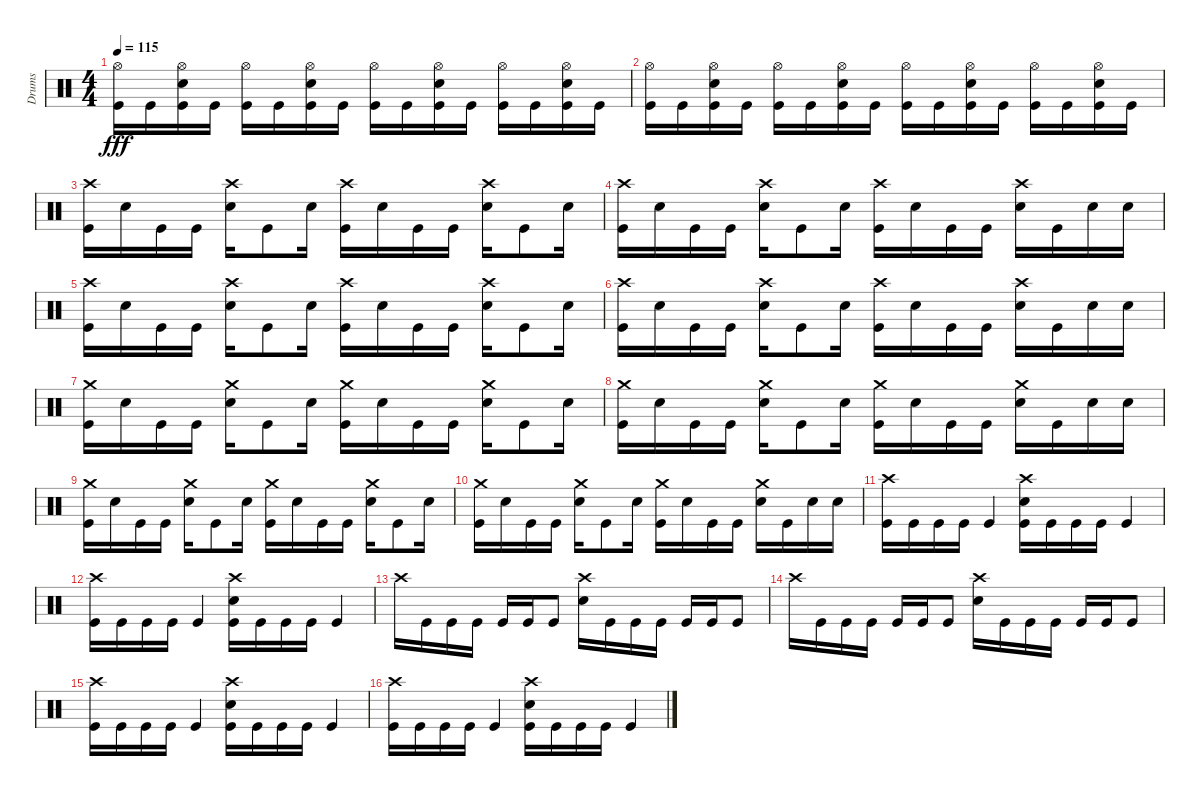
\track ("Drums" "Drums") {instrument percussion}
\staff {score}
\articulation defaults
\ts (4 4)
\tempo 115
\clef neutral
\ks c
("Hi-Hat (open)" "Kick (hit)").16{dy fff} "Kick (hit)".16 ("Hi-Hat (open)" "Electric Snare (hit)" "Kick (hit)").16 "Kick (hit)".16 ("Hi-Hat (open)" "Kick (hit)").16 "Kick (hit)".16 ("Hi-Hat (open)" "Electric Snare (hit)" "Kick (hit)").16 "Kick (hit)".16 ("Hi-Hat (open)" "Kick (hit)").16 "Kick (hit)".16 ("Hi-Hat (open)" "Electric Snare (hit)" "Kick (hit)").16 "Kick (hit)".16 ("Hi-Hat (open)" "Kick (hit)").16 "Kick (hit)".16 ("Hi-Hat (open)" "Electric Snare (hit)" "Kick (hit)").16 "Kick (hit)".16 |
("Hi-Hat (open)" "Kick (hit)").16 "Kick (hit)".16 ("Hi-Hat (open)" "Electric Snare (hit)" "Kick (hit)").16 "Kick (hit)".16 ("Hi-Hat (open)" "Kick (hit)").16 "Kick (hit)".16 ("Hi-Hat (open)" "Electric Snare (hit)" "Kick (hit)").16 "Kick (hit)".16 ("Hi-Hat (open)" "Kick (hit)").16 "Kick (hit)".16 ("Hi-Hat (open)" "Electric Snare (hit)" "Kick (hit)").16 "Kick (hit)".16 ("Hi-Hat (open)" "Kick (hit)").16 "Kick (hit)".16 ("Hi-Hat (open)" "Electric Snare (hit)" "Kick (hit)").16 "Kick (hit)".16 |
("Crash high (hit)" "Kick (hit)").16 "Electric Snare (hit)".16 "Kick (hit)".16 "Kick (hit)".16 ("Crash high (hit)" "Electric Snare (hit)").16 "Kick (hit)".8 "Electric Snare (hit)".16 ("Crash high (hit)" "Kick (hit)").16 "Electric Snare (hit)".16 "Kick (hit)".16 "Kick (hit)".16 ("Crash high (hit)" "Electric Snare (hit)").16 "Kick (hit)".8 "Electric Snare (hit)".16 |
("Crash high (hit)" "Kick (hit)").16 "Electric Snare (hit)".16 "Kick (hit)".16 "Kick (hit)".16 ("Crash high (hit)" "Electric Snare (hit)").16 "Kick (hit)".8 "Electric Snare (hit)".16 ("Crash high (hit)" "Kick (hit)").16 "Electric Snare (hit)".16 "Kick (hit)".16 "Kick (hit)".16 ("Crash high (hit)" "Electric Snare (hit)").16 "Kick (hit)".16 "Electric Snare (hit)".16 "Electric Snare (hit)".16 |
("Crash high (hit)" "Kick (hit)").16 "Electric Snare (hit)".16 "Kick (hit)".16 "Kick (hit)".16 ("Crash high (hit)" "Electric Snare (hit)").16 "Kick (hit)".8 "Electric Snare (hit)".16 ("Crash high (hit)" "Kick (hit)").16 "Electric Snare (hit)".16 "Kick (hit)".16 "Kick (hit)".16 ("Crash high (hit)" "Electric Snare (hit)").16 "Kick (hit)".8 "Electric Snare (hit)".16 |
("Crash high (hit)" "Kick (hit)").16 "Electric Snare (hit)".16 "Kick (hit)".16 "Kick (hit)".16 ("Crash high (hit)" "Electric Snare (hit)").16 "Kick (hit)".8 "Electric Snare (hit)".16 ("Crash high (hit)" "Kick (hit)").16 "Electric Snare (hit)".16 "Kick (hit)".16 "Kick (hit)".16 ("Crash high (hit)" "Electric Snare (hit)").16 "Kick (hit)".16 "Electric Snare (hit)".16 "Electric Snare (hit)".16 |
("Crash medium (hit)" "Kick (hit)").16 "Electric Snare (hit)".16 "Kick (hit)".16 "Kick (hit)".16 ("Crash medium (hit)" "Electric Snare (hit)").16 "Kick (hit)".8 "Electric Snare (hit)".16 ("Crash medium (hit)" "Kick (hit)").16 "Electric Snare (hit)".16 "Kick (hit)".16 "Kick (hit)".16 ("Crash medium (hit)" "Electric Snare (hit)").16 "Kick (hit)".8 "Electric Snare (hit)".16 |
("Crash medium (hit)" "Kick (hit)").16 "Electric Snare (hit)".16 "Kick (hit)".16 "Kick (hit)".16 ("Crash medium (hit)" "Electric Snare (hit)").16 "Kick (hit)".8 "Electric Snare (hit)".16 ("Crash medium (hit)" "Kick (hit)").16 "Electric Snare (hit)".16 "Kick (hit)".16 "Kick (hit)".16 ("Crash medium (hit)" "Electric Snare (hit)").16 "Kick (hit)".16 "Electric Snare (hit)".16 "Electric Snare (hit)".16 |
("Crash medium (hit)" "Kick (hit)").16 "Electric Snare (hit)".16 "Kick (hit)".16 "Kick (hit)".16 ("Crash medium (hit)" "Electric Snare (hit)").16 "Kick (hit)".8 "Electric Snare (hit)".16 ("Crash medium (hit)" "Kick (hit)").16 "Electric Snare (hit)".16 "Kick (hit)".16 "Kick (hit)".16 ("Crash medium (hit)" "Electric Snare (hit)").16 "Kick (hit)".8 "Electric Snare (hit)".16 |
("Crash medium (hit)" "Kick (hit)").16 "Electric Snare (hit)".16 "Kick (hit)".16 "Kick (hit)".16 ("Crash medium (hit)" "Electric Snare (hit)").16 "Kick (hit)".8 "Electric Snare (hit)".16 ("Crash medium (hit)" "Kick (hit)").16 "Electric Snare (hit)".16 "Kick (hit)".16 "Kick (hit)".16 ("Crash medium (hit)" "Electric Snare (hit)").16 "Kick (hit)".16 "Electric Snare (hit)".16 "Electric Snare (hit)".16 |
("Crash high (hit)" "Kick (hit)").16 "Kick (hit)".16 "Kick (hit)".16 "Kick (hit)".16 "Kick (hit)".4 ("Crash high (hit)" "Electric Snare (hit)" "Kick (hit)").16 "Kick (hit)".16 "Kick (hit)".16 "Kick (hit)".16 "Kick (hit)".4 |
("Crash high (hit)" "Kick (hit)").16 "Kick (hit)".16 "Kick (hit)".16 "Kick (hit)".16 "Kick (hit)".4 ("Crash high (hit)" "Electric Snare (hit)" "Kick (hit)").16 "Kick (hit)".16 "Kick (hit)".16 "Kick (hit)".16 "Kick (hit)".4 |
"Crash high (hit)".16 "Kick (hit)".16 "Kick (hit)".16 "Kick (hit)".16 "Kick (hit)".16 "Kick (hit)".16 "Kick (hit)".8 ("Crash high (hit)" "Electric Snare (hit)").16 "Kick (hit)".16 "Kick (hit)".16 "Kick (hit)".16 "Kick (hit)".16 "Kick (hit)".16 "Kick (hit)".8 |
"Crash high (hit)".16 "Kick (hit)".16 "Kick (hit)".16 "Kick (hit)".16 "Kick (hit)".16 "Kick (hit)".16 "Kick (hit)".8 ("Crash high (hit)" "Electric Snare (hit)").16 "Kick (hit)".16 "Kick (hit)".16 "Kick (hit)".16 "Kick (hit)".16 "Kick (hit)".16 "Kick (hit)".8 |
("Crash high (hit)" "Kick (hit)").16 "Kick (hit)".16 "Kick (hit)".16 "Kick (hit)".16 "Kick (hit)".4 ("Crash high (hit)" "Electric Snare (hit)" "Kick (hit)").16 "Kick (hit)".16 "Kick (hit)".16 "Kick (hit)".16 "Kick (hit)".4 |
("Crash high (hit)" "Kick (hit)").16 "Kick (hit)".16 "Kick (hit)".16 "Kick (hit)".16 "Kick (hit)".4 ("Crash high (hit)" "Electric Snare (hit)" "Kick (hit)").16 "Kick (hit)".16 "Kick (hit)".16 "Kick (hit)".16 "Kick (hit)".4
